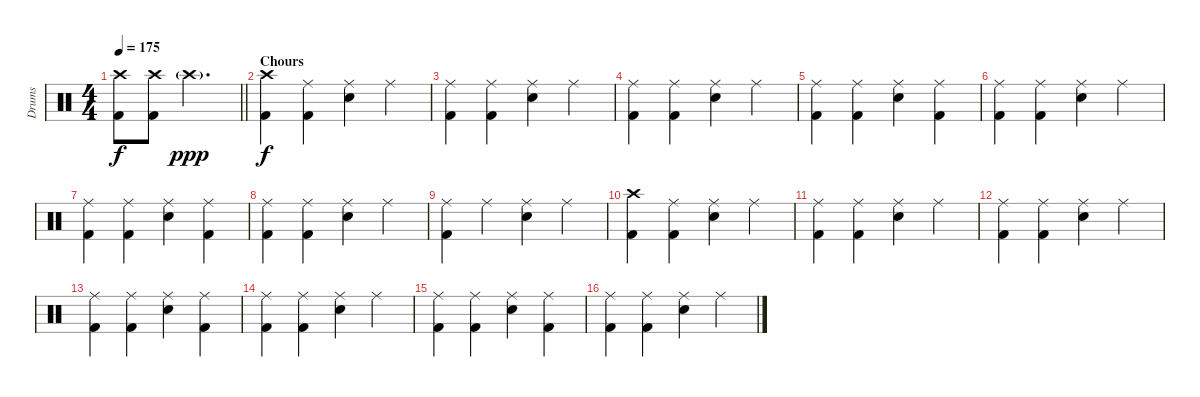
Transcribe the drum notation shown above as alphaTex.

\track ("Drums" "Drums") {instrument percussion}
\staff {score}
\articulation defaults
\ts (4 4)
\tempo 175
\clef neutral
\barLineRight lightlight
\ks c
("Crash high (hit)" "Kick (hit) 2").8{dy f} ("Crash high (hit)" "Kick (hit) 2").8 "Crash high (hit)"{g}.2{d dy ppp} |
\section ("" "Chours")
("Crash high (hit)" "Kick (hit) 2").4{dy f} ("Ride (middle)" "Kick (hit) 2").4 ("Ride (middle)" "Electric Snare (hit)").4 "Ride (middle)".4 |
("Ride (middle)" "Kick (hit) 2").4 ("Ride (middle)" "Kick (hit) 2").4 ("Ride (middle)" "Electric Snare (hit)").4 "Ride (middle)".4 |
("Ride (middle)" "Kick (hit) 2").4 ("Ride (middle)" "Kick (hit) 2").4 ("Ride (middle)" "Electric Snare (hit)").4 "Ride (middle)".4 |
("Ride (middle)" "Kick (hit) 2").4 ("Ride (middle)" "Kick (hit) 2").4 ("Ride (middle)" "Electric Snare (hit)").4 ("Ride (middle)" "Kick (hit) 2").4 |
("Ride (middle)" "Kick (hit) 2").4 ("Ride (middle)" "Kick (hit) 2").4 ("Ride (middle)" "Electric Snare (hit)").4 "Ride (middle)".4 |
("Ride (middle)" "Kick (hit) 2").4 ("Ride (middle)" "Kick (hit) 2").4 ("Ride (middle)" "Electric Snare (hit)").4 ("Ride (middle)" "Kick (hit) 2").4 |
("Ride (middle)" "Kick (hit) 2").4 ("Ride (middle)" "Kick (hit) 2").4 ("Ride (middle)" "Electric Snare (hit)").4 "Ride (middle)".4 |
("Ride (middle)" "Kick (hit) 2").4 "Ride (middle)".4 ("Ride (middle)" "Electric Snare (hit)").4 "Ride (middle)".4 |
("Crash high (hit)" "Kick (hit) 2").4 ("Ride (middle)" "Kick (hit) 2").4 ("Ride (middle)" "Electric Snare (hit)").4 "Ride (middle)".4 |
("Ride (middle)" "Kick (hit) 2").4 ("Ride (middle)" "Kick (hit) 2").4 ("Ride (middle)" "Electric Snare (hit)").4 "Ride (middle)".4 |
("Ride (middle)" "Kick (hit) 2").4 ("Ride (middle)" "Kick (hit) 2").4 ("Ride (middle)" "Electric Snare (hit)").4 "Ride (middle)".4 |
("Ride (middle)" "Kick (hit) 2").4 ("Ride (middle)" "Kick (hit) 2").4 ("Ride (middle)" "Electric Snare (hit)").4 ("Ride (middle)" "Kick (hit) 2").4 |
("Ride (middle)" "Kick (hit) 2").4 ("Ride (middle)" "Kick (hit) 2").4 ("Ride (middle)" "Electric Snare (hit)").4 "Ride (middle)".4 |
("Ride (middle)" "Kick (hit) 2").4 ("Ride (middle)" "Kick (hit) 2").4 ("Ride (middle)" "Electric Snare (hit)").4 ("Ride (middle)" "Kick (hit) 2").4 |
("Ride (middle)" "Kick (hit) 2").4 ("Ride (middle)" "Kick (hit) 2").4 ("Ride (middle)" "Electric Snare (hit)").4 "Ride (middle)".4
